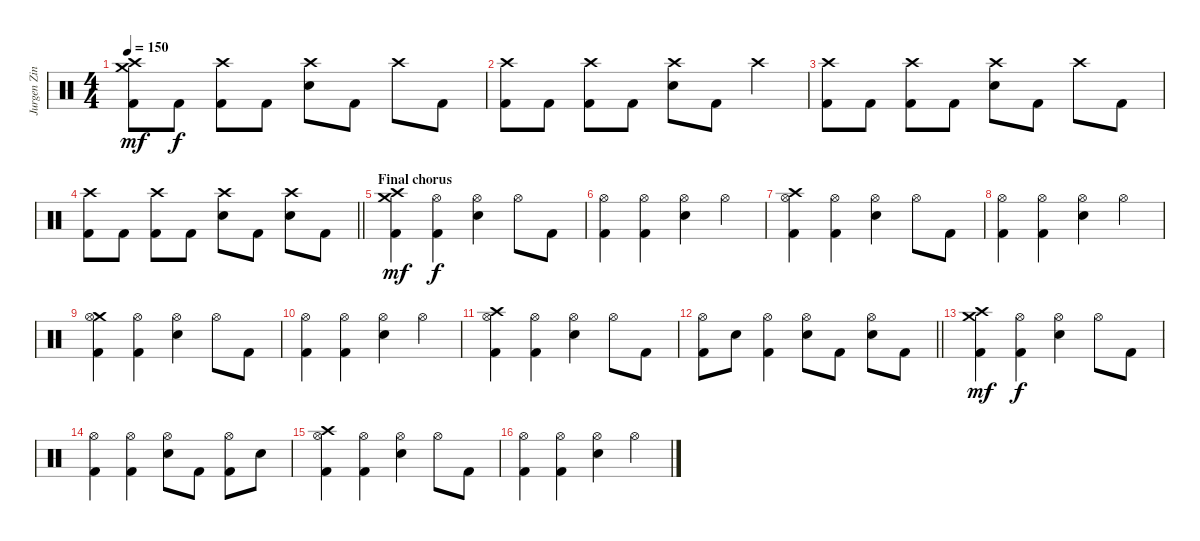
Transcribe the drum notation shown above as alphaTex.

\track ("Jurgen Zing" "Jurgen Zin") {instrument percussion}
\staff {score}
\articulation defaults
\ts (4 4)
\tempo 150
\clef neutral
\ks c
("Crash medium (hit)" "Crash high (hit)" "Kick (hit) 2").8{dy mf} "Kick (hit) 2".8{dy f} ("Crash high (hit)" "Kick (hit) 2").8 "Kick (hit) 2".8 ("Crash high (hit)" "Electric Snare (hit)").8 "Kick (hit) 2".8 "Crash high (hit)".8 "Kick (hit) 2".8 |
("Crash high (hit)" "Kick (hit) 2").8 "Kick (hit) 2".8 ("Crash high (hit)" "Kick (hit) 2").8 "Kick (hit) 2".8 ("Crash high (hit)" "Electric Snare (hit)").8 "Kick (hit) 2".8 "Crash high (hit)".4 |
("Crash high (hit)" "Kick (hit) 2").8 "Kick (hit) 2".8 ("Crash high (hit)" "Kick (hit) 2").8 "Kick (hit) 2".8 ("Crash high (hit)" "Electric Snare (hit)").8 "Kick (hit) 2".8 "Crash high (hit)".8 "Kick (hit) 2".8 |
\barLineRight lightlight
("Crash high (hit)" "Kick (hit) 2").8 "Kick (hit) 2".8 ("Crash high (hit)" "Kick (hit) 2").8 "Kick (hit) 2".8 ("Crash high (hit)" "Electric Snare (hit)").8 "Kick (hit) 2".8 ("Crash high (hit)" "Electric Snare (hit)").8 "Kick (hit) 2".8 |
\section ("" "Final chorus")
("Crash medium (hit)" "Crash high (hit)" "Kick (hit) 2").4{dy mf} ("Hi-Hat (open)" "Kick (hit) 2").4{dy f} ("Hi-Hat (open)" "Electric Snare (hit)").4 "Hi-Hat (open)".8 "Kick (hit) 2".8 |
("Hi-Hat (open)" "Kick (hit) 2").4 ("Hi-Hat (open)" "Kick (hit) 2").4 ("Hi-Hat (open)" "Electric Snare (hit)").4 "Hi-Hat (open)".4 |
("Crash high (hit)" "Hi-Hat (open)" "Kick (hit) 2").4 ("Hi-Hat (open)" "Kick (hit) 2").4 ("Hi-Hat (open)" "Electric Snare (hit)").4 "Hi-Hat (open)".8 "Kick (hit) 2".8 |
("Hi-Hat (open)" "Kick (hit) 2").4 ("Hi-Hat (open)" "Kick (hit) 2").4 ("Hi-Hat (open)" "Electric Snare (hit)").4 "Hi-Hat (open)".4 |
("Crash medium (hit)" "Hi-Hat (open)" "Kick (hit) 2").4 ("Hi-Hat (open)" "Kick (hit) 2").4 ("Hi-Hat (open)" "Electric Snare (hit)").4 "Hi-Hat (open)".8 "Kick (hit) 2".8 |
("Hi-Hat (open)" "Kick (hit) 2").4 ("Hi-Hat (open)" "Kick (hit) 2").4 ("Hi-Hat (open)" "Electric Snare (hit)").4 "Hi-Hat (open)".4 |
("Crash high (hit)" "Hi-Hat (open)" "Kick (hit) 2").4 ("Hi-Hat (open)" "Kick (hit) 2").4 ("Hi-Hat (open)" "Electric Snare (hit)").4 "Hi-Hat (open)".8 "Kick (hit) 2".8 |
\barLineRight lightlight
("Hi-Hat (open)" "Kick (hit) 2").8 "Electric Snare (hit)".8 ("Hi-Hat (open)" "Kick (hit) 2").4 ("Hi-Hat (open)" "Electric Snare (hit)").8 "Kick (hit) 2".8 ("Hi-Hat (open)" "Electric Snare (hit)").8 "Kick (hit) 2".8 |
("Crash medium (hit)" "Crash high (hit)" "Kick (hit) 2").4{dy mf} ("Hi-Hat (open)" "Kick (hit) 2").4{dy f} ("Hi-Hat (open)" "Electric Snare (hit)").4 "Hi-Hat (open)".8 "Kick (hit) 2".8 |
("Hi-Hat (open)" "Kick (hit) 2").4 ("Hi-Hat (open)" "Kick (hit) 2").4 ("Hi-Hat (open)" "Electric Snare (hit)").8 "Kick (hit) 2".8 ("Hi-Hat (open)" "Kick (hit) 2").8 "Electric Snare (hit)".8 |
("Crash high (hit)" "Hi-Hat (open)" "Kick (hit) 2").4 ("Hi-Hat (open)" "Kick (hit) 2").4 ("Hi-Hat (open)" "Electric Snare (hit)").4 "Hi-Hat (open)".8 "Kick (hit) 2".8 |
("Hi-Hat (open)" "Kick (hit) 2").4 ("Hi-Hat (open)" "Kick (hit) 2").4 ("Hi-Hat (open)" "Electric Snare (hit)").4 "Hi-Hat (open)".4
